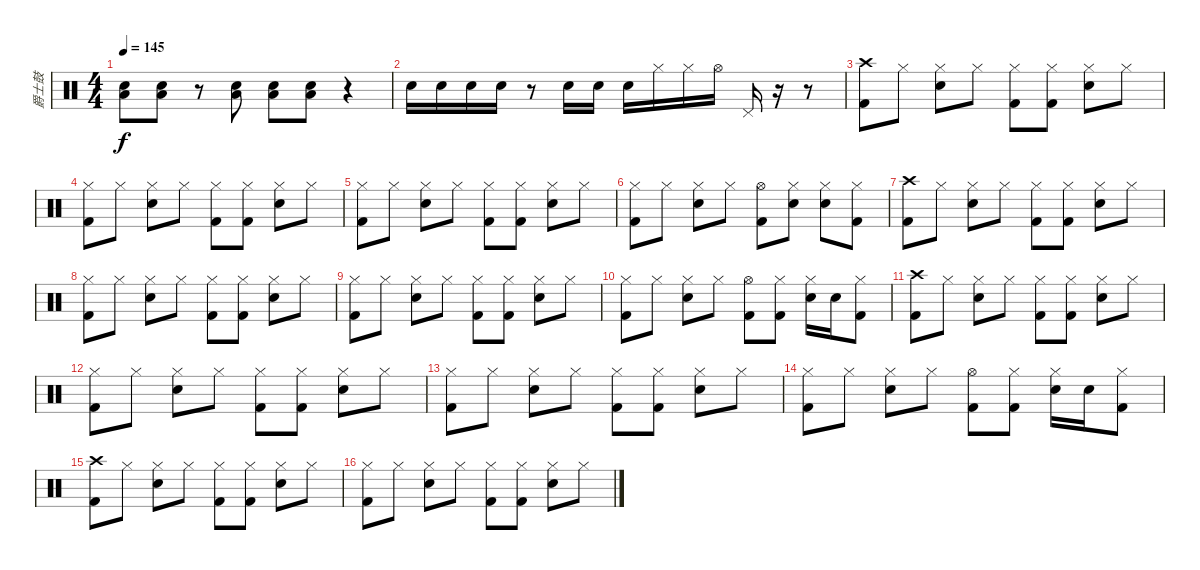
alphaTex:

\track ("爵士鼓" "爵士鼓") {instrument percussion}
\staff {score}
\articulation defaults
\ts (4 4)
\tempo 145
\clef neutral
\ks c
("Electric Snare (hit)" "Low Floor Tom (hit)").8{dy f} ("Electric Snare (hit)" "Low Floor Tom (hit)").8 r.8 ("Electric Snare (hit)" "Low Floor Tom (hit)").8 ("Electric Snare (hit)" "Low Floor Tom (hit)").8 ("Electric Snare (hit)" "Low Floor Tom (hit)").8 r.4 |
"Electric Snare (hit)".16 "Electric Snare (hit)".16 "Electric Snare (hit)".16 "Electric Snare (hit)".16 r.8 "Electric Snare (hit)".16 "Electric Snare (hit)".16 "Electric Snare (hit)".16 "Hi-Hat (closed)".16 "Hi-Hat (closed)".16 "Hi-Hat (open)".16 "Pedal Hi-Hat (hit)".16 r.16 r.8 |
("Crash high (hit)" "Kick (hit) 2").8 "Hi-Hat (closed)".8 ("Hi-Hat (closed)" "Electric Snare (hit)").8 "Hi-Hat (closed)".8 ("Hi-Hat (closed)" "Kick (hit) 2").8 ("Hi-Hat (closed)" "Kick (hit) 2").8 ("Hi-Hat (closed)" "Electric Snare (hit)").8 "Hi-Hat (closed)".8 |
("Hi-Hat (closed)" "Kick (hit) 2").8 "Hi-Hat (closed)".8 ("Hi-Hat (closed)" "Electric Snare (hit)").8 "Hi-Hat (closed)".8 ("Hi-Hat (closed)" "Kick (hit) 2").8 ("Hi-Hat (closed)" "Kick (hit) 2").8 ("Hi-Hat (closed)" "Electric Snare (hit)").8 "Hi-Hat (closed)".8 |
("Hi-Hat (closed)" "Kick (hit) 2").8 "Hi-Hat (closed)".8 ("Hi-Hat (closed)" "Electric Snare (hit)").8 "Hi-Hat (closed)".8 ("Hi-Hat (closed)" "Kick (hit) 2").8 ("Hi-Hat (closed)" "Kick (hit) 2").8 ("Hi-Hat (closed)" "Electric Snare (hit)").8 "Hi-Hat (closed)".8 |
("Hi-Hat (closed)" "Kick (hit) 2").8 "Hi-Hat (closed)".8 ("Hi-Hat (closed)" "Electric Snare (hit)").8 "Hi-Hat (closed)".8 ("Hi-Hat (open)" "Kick (hit) 2").8 ("Hi-Hat (closed)" "Electric Snare (hit)").8 ("Hi-Hat (closed)" "Electric Snare (hit)").8 ("Hi-Hat (closed)" "Kick (hit) 2").8 |
("Crash high (hit)" "Kick (hit) 2").8 "Hi-Hat (closed)".8 ("Hi-Hat (closed)" "Electric Snare (hit)").8 "Hi-Hat (closed)".8 ("Hi-Hat (closed)" "Kick (hit) 2").8 ("Hi-Hat (closed)" "Kick (hit) 2").8 ("Hi-Hat (closed)" "Electric Snare (hit)").8 "Hi-Hat (closed)".8 |
("Hi-Hat (closed)" "Kick (hit) 2").8 "Hi-Hat (closed)".8 ("Hi-Hat (closed)" "Electric Snare (hit)").8 "Hi-Hat (closed)".8 ("Hi-Hat (closed)" "Kick (hit) 2").8 ("Hi-Hat (closed)" "Kick (hit) 2").8 ("Hi-Hat (closed)" "Electric Snare (hit)").8 "Hi-Hat (closed)".8 |
("Hi-Hat (closed)" "Kick (hit) 2").8 "Hi-Hat (closed)".8 ("Hi-Hat (closed)" "Electric Snare (hit)").8 "Hi-Hat (closed)".8 ("Hi-Hat (closed)" "Kick (hit) 2").8 ("Hi-Hat (closed)" "Kick (hit) 2").8 ("Hi-Hat (closed)" "Electric Snare (hit)").8 "Hi-Hat (closed)".8 |
("Hi-Hat (closed)" "Kick (hit) 2").8 "Hi-Hat (closed)".8 ("Hi-Hat (closed)" "Electric Snare (hit)").8 "Hi-Hat (closed)".8 ("Hi-Hat (open)" "Kick (hit) 2").8 ("Hi-Hat (closed)" "Kick (hit) 2").8 ("Hi-Hat (closed)" "Electric Snare (hit)").16 "Electric Snare (hit)".16 ("Hi-Hat (closed)" "Kick (hit) 2").8 |
("Crash high (hit)" "Kick (hit) 2").8 "Hi-Hat (closed)".8 ("Hi-Hat (closed)" "Electric Snare (hit)").8 "Hi-Hat (closed)".8 ("Hi-Hat (closed)" "Kick (hit) 2").8 ("Hi-Hat (closed)" "Kick (hit) 2").8 ("Hi-Hat (closed)" "Electric Snare (hit)").8 "Hi-Hat (closed)".8 |
("Hi-Hat (closed)" "Kick (hit) 2").8 "Hi-Hat (closed)".8 ("Hi-Hat (closed)" "Electric Snare (hit)").8 "Hi-Hat (closed)".8 ("Hi-Hat (closed)" "Kick (hit) 2").8 ("Hi-Hat (closed)" "Kick (hit) 2").8 ("Hi-Hat (closed)" "Electric Snare (hit)").8 "Hi-Hat (closed)".8 |
("Hi-Hat (closed)" "Kick (hit) 2").8 "Hi-Hat (closed)".8 ("Hi-Hat (closed)" "Electric Snare (hit)").8 "Hi-Hat (closed)".8 ("Hi-Hat (closed)" "Kick (hit) 2").8 ("Hi-Hat (closed)" "Kick (hit) 2").8 ("Hi-Hat (closed)" "Electric Snare (hit)").8 "Hi-Hat (closed)".8 |
("Hi-Hat (closed)" "Kick (hit) 2").8 "Hi-Hat (closed)".8 ("Hi-Hat (closed)" "Electric Snare (hit)").8 "Hi-Hat (closed)".8 ("Hi-Hat (open)" "Kick (hit) 2").8 ("Hi-Hat (closed)" "Kick (hit) 2").8 ("Hi-Hat (closed)" "Electric Snare (hit)").16 "Electric Snare (hit)".16 ("Hi-Hat (closed)" "Kick (hit) 2").8 |
("Crash high (hit)" "Kick (hit) 2").8 "Hi-Hat (closed)".8 ("Hi-Hat (closed)" "Electric Snare (hit)").8 "Hi-Hat (closed)".8 ("Hi-Hat (closed)" "Kick (hit) 2").8 ("Hi-Hat (closed)" "Kick (hit) 2").8 ("Hi-Hat (closed)" "Electric Snare (hit)").8 "Hi-Hat (closed)".8 |
("Hi-Hat (closed)" "Kick (hit) 2").8 "Hi-Hat (closed)".8 ("Hi-Hat (closed)" "Electric Snare (hit)").8 "Hi-Hat (closed)".8 ("Hi-Hat (closed)" "Kick (hit) 2").8 ("Hi-Hat (closed)" "Kick (hit) 2").8 ("Hi-Hat (closed)" "Electric Snare (hit)").8 "Hi-Hat (closed)".8
